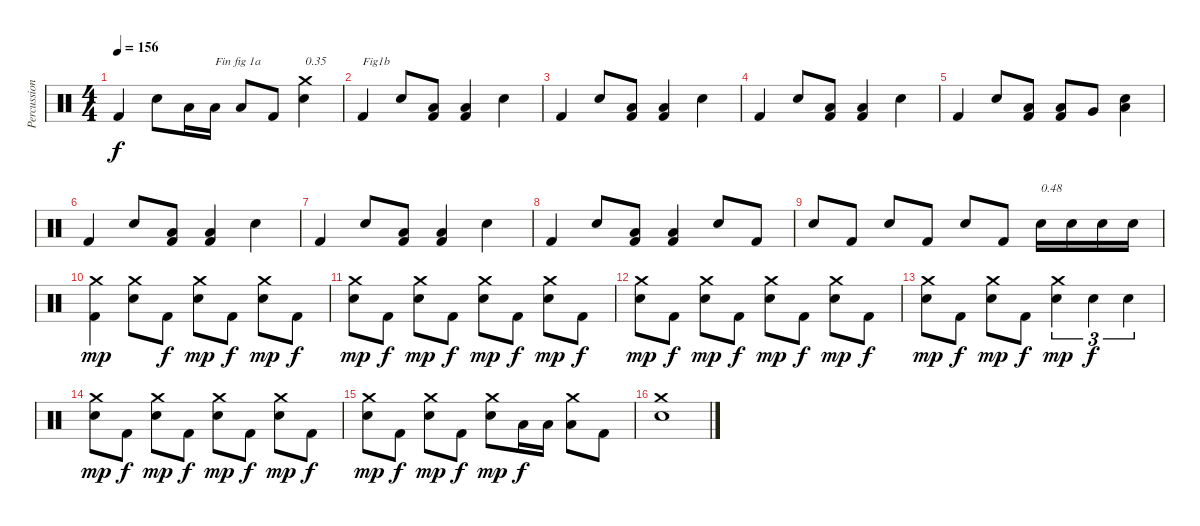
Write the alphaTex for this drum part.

\track ("Percussions" "Percussion") {instrument percussion}
\staff {score}
\articulation defaults
\ts (4 4)
\tempo 156
\clef neutral
\ks c "Kick (hit) 2".4{dy f} "Electric Snare (hit)".8 "Low Floor Tom (hit)".16 "Low Floor Tom (hit)".16{txt "Fin fig 1a"} "Low Floor Tom (hit)".8 "Kick (hit) 2".8
("Electric Snare (hit)" "Crash medium (hit)").4{txt "0.35"} |
"Kick (hit) 2".4{txt "Fig1b"} "Electric Snare (hit)".8 ("Kick (hit) 2" "Low Floor Tom (hit)").8 ("Kick (hit) 2" "Low Floor Tom (hit)").4 "Electric Snare (hit)".4 |
"Kick (hit) 2".4 "Electric Snare (hit)".8 ("Kick (hit) 2" "Low Floor Tom (hit)").8 ("Kick (hit) 2" "Low Floor Tom (hit)").4 "Electric Snare (hit)".4 |
"Kick (hit) 2".4 "Electric Snare (hit)".8 ("Kick (hit) 2" "Low Floor Tom (hit)").8 ("Kick (hit) 2" "Low Floor Tom (hit)").4 "Electric Snare (hit)".4 |
"Kick (hit) 2".4 "Electric Snare (hit)".8 ("Kick (hit) 2" "Low Floor Tom (hit)").8 ("Kick (hit) 2" "Low Floor Tom (hit)").8 "Very Low Tom (hit)".8 ("Electric Snare (hit)" "Low Floor Tom (hit)").4 |
"Kick (hit) 2".4 "Electric Snare (hit)".8 ("Kick (hit) 2" "Low Floor Tom (hit)").8 ("Kick (hit) 2" "Low Floor Tom (hit)").4 "Electric Snare (hit)".4 |
"Kick (hit) 2".4 "Electric Snare (hit)".8 ("Kick (hit) 2" "Low Floor Tom (hit)").8 ("Kick (hit) 2" "Low Floor Tom (hit)").4 "Electric Snare (hit)".4 |
"Kick (hit) 2".4 "Electric Snare (hit)".8 ("Kick (hit) 2" "Low Floor Tom (hit)").8 ("Kick (hit) 2" "Low Floor Tom (hit)").4 "Electric Snare (hit)".8 "Kick (hit) 2".8 |
"Electric Snare (hit)".8 "Kick (hit) 2".8 "Electric Snare (hit)".8 "Kick (hit) 2".8 "Electric Snare (hit)".8 "Kick (hit) 2".8 "Electric Snare (hit)".16{txt "0.48"} "Electric Snare (hit)".16 "Electric Snare (hit)".16 "Electric Snare (hit)".16 |
("Kick (hit) 2" "Crash medium (hit)").4{dy mp} ("Electric Snare (hit)" "Crash medium (hit)").8 "Kick (hit) 2".8{dy f} ("Electric Snare (hit)" "Crash medium (hit)").8{dy mp} "Kick (hit) 2".8{dy f} ("Electric Snare (hit)" "Crash medium (hit)").8{dy mp} "Kick (hit) 2".8{dy f} |
("Electric Snare (hit)" "Crash medium (hit)").8{dy mp} "Kick (hit) 2".8{dy f} ("Electric Snare (hit)" "Crash medium (hit)").8{dy mp} "Kick (hit) 2".8{dy f} ("Electric Snare (hit)" "Crash medium (hit)").8{dy mp} "Kick (hit) 2".8{dy f} ("Electric Snare (hit)" "Crash medium (hit)").8{dy mp} "Kick (hit) 2".8{dy f} |
("Electric Snare (hit)" "Crash medium (hit)").8{dy mp} "Kick (hit) 2".8{dy f} ("Electric Snare (hit)" "Crash medium (hit)").8{dy mp} "Kick (hit) 2".8{dy f} ("Electric Snare (hit)" "Crash medium (hit)").8{dy mp} "Kick (hit) 2".8{dy f} ("Electric Snare (hit)" "Crash medium (hit)").8{dy mp} "Kick (hit) 2".8{dy f} |
("Electric Snare (hit)" "Crash medium (hit)").8{dy mp} "Kick (hit) 2".8{dy f} ("Electric Snare (hit)" "Crash medium (hit)").8{dy mp} "Kick (hit) 2".8{dy f} ("Electric Snare (hit)" "Crash medium (hit)").4{tu (3 2) dy mp} "Electric Snare (hit)".4{tu (3 2) dy f} "Electric Snare (hit)".4{tu (3 2)} |
("Electric Snare (hit)" "Crash medium (hit)").8{dy mp} "Kick (hit) 2".8{dy f} ("Electric Snare (hit)" "Crash medium (hit)").8{dy mp} "Kick (hit) 2".8{dy f} ("Electric Snare (hit)" "Crash medium (hit)").8{dy mp} "Kick (hit) 2".8{dy f} ("Electric Snare (hit)" "Crash medium (hit)").8{dy mp} "Kick (hit) 2".8{dy f} |
("Electric Snare (hit)" "Crash medium (hit)").8{dy mp} "Kick (hit) 2".8{dy f} ("Electric Snare (hit)" "Crash medium (hit)").8{dy mp} "Kick (hit) 2".8{dy f} ("Electric Snare (hit)" "Crash medium (hit)").8{dy mp} "Low Floor Tom (hit)".16{dy f} "Low Floor Tom (hit)".16 ("Low Floor Tom (hit)" "Crash medium (hit)").8 "Kick (hit) 2".8 |
("Electric Snare (hit)" "Crash medium (hit)").1
